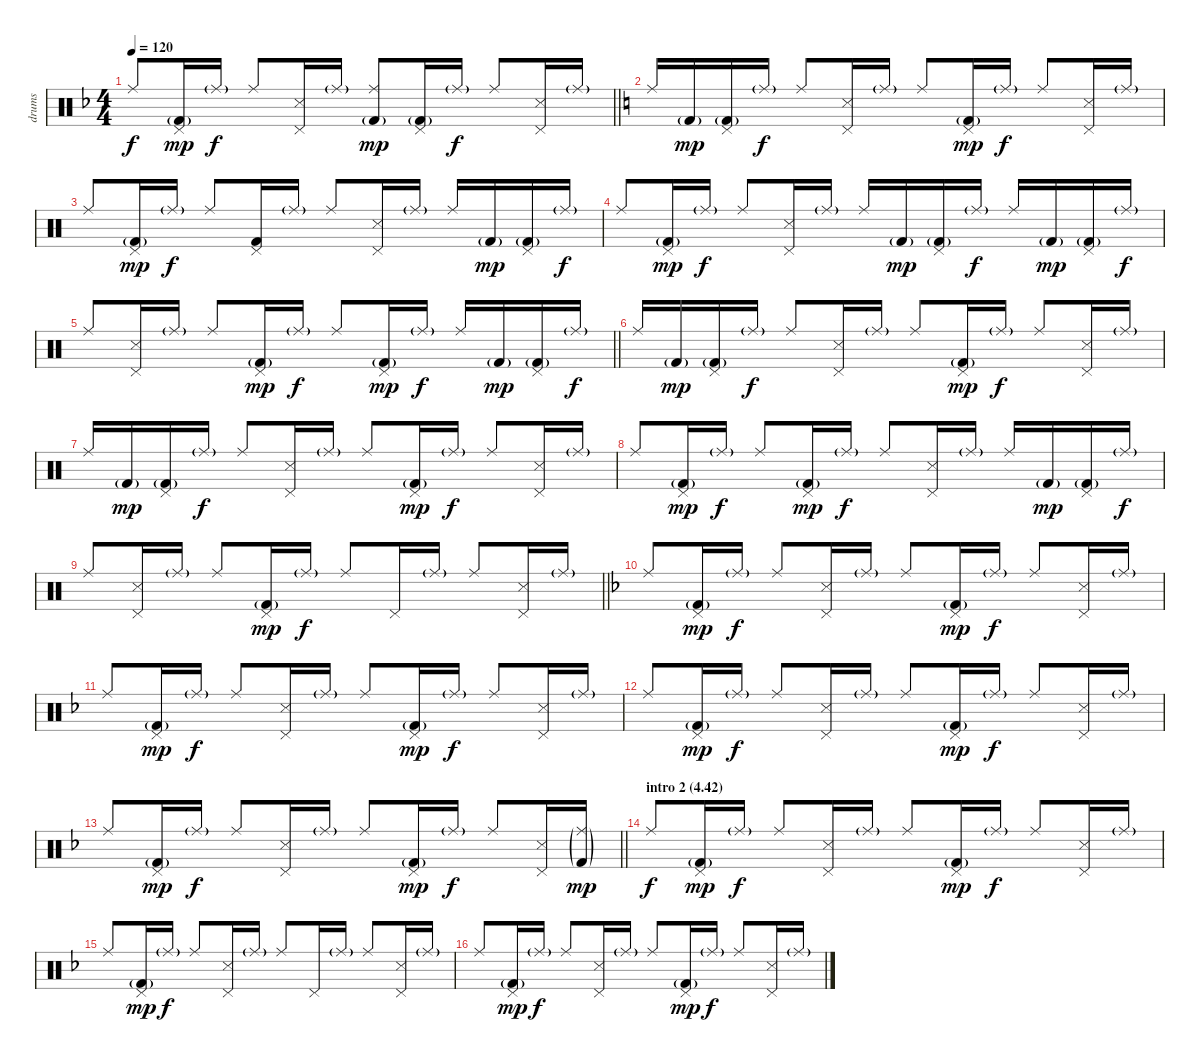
\track ("drums" "drums") {instrument percussion}
\staff {score}
\articulation defaults
\ts (4 4)
\tempo 120
\clef neutral
\barLineRight lightlight
\ks f "Ride (middle)".8{dy f}
("Pedal Hi-Hat (hit)" "Kick (hit) 2"{g}).16{dy mp} "Ride (middle)"{g}.16{dy f} "Ride (middle)".8 ("Pedal Hi-Hat (hit)" "Snare (side stick) 3").16 "Ride (middle)"{g}.16 ("Ride (middle)" "Kick (hit) 2"{g}).8{dy mp} ("Pedal Hi-Hat (hit)" "Kick (hit) 2"{g}).16 "Ride (middle)"{g}.16{dy f} "Ride (middle)".8 ("Pedal Hi-Hat (hit)" "Snare (side stick) 3").16 "Ride (middle)"{g}.16 |
\ks c "Ride (middle)".16 "Kick (hit) 2"{g}.16{dy mp}
("Pedal Hi-Hat (hit)" "Kick (hit) 2"{g}).16 "Ride (middle)"{g}.16{dy f} "Ride (middle)".8 ("Pedal Hi-Hat (hit)" "Snare (side stick) 3").16 "Ride (middle)"{g}.16 "Ride (middle)".8 ("Pedal Hi-Hat (hit)" "Kick (hit) 2"{g}).16{dy mp} "Ride (middle)"{g}.16{dy f} "Ride (middle)".8 ("Pedal Hi-Hat (hit)" "Snare (side stick) 3").16 "Ride (middle)"{g}.16 |
"Ride (middle)".8 ("Pedal Hi-Hat (hit)" "Kick (hit) 2"{g}).16{dy mp} "Ride (middle)"{g}.16{dy f} "Ride (middle)".8 ("Pedal Hi-Hat (hit)" "Kick (hit) 2").16 "Ride (middle)"{g}.16 "Ride (middle)".8 ("Pedal Hi-Hat (hit)" "Snare (side stick) 3").16 "Ride (middle)"{g}.16 "Ride (middle)".16 "Kick (hit) 2"{g}.16{dy mp} ("Pedal Hi-Hat (hit)" "Kick (hit) 2"{g}).16 "Ride (middle)"{g}.16{dy f} |
"Ride (middle)".8 ("Pedal Hi-Hat (hit)" "Kick (hit) 2"{g}).16{dy mp} "Ride (middle)"{g}.16{dy f} "Ride (middle)".8 ("Pedal Hi-Hat (hit)" "Snare (side stick) 3").16 "Ride (middle)"{g}.16 "Ride (middle)".16 "Kick (hit) 2"{g}.16{dy mp} ("Pedal Hi-Hat (hit)" "Kick (hit) 2"{g}).16 "Ride (middle)"{g}.16{dy f} "Ride (middle)".16 "Kick (hit) 2"{g}.16{dy mp} ("Pedal Hi-Hat (hit)" "Kick (hit) 2"{g}).16 "Ride (middle)"{g}.16{dy f} |
\barLineRight lightlight "Ride (middle)".8
("Pedal Hi-Hat (hit)" "Snare (side stick) 3").16 "Ride (middle)"{g}.16 "Ride (middle)".8 ("Pedal Hi-Hat (hit)" "Kick (hit) 2"{g}).16{dy mp} "Ride (middle)"{g}.16{dy f} "Ride (middle)".8 ("Pedal Hi-Hat (hit)" "Kick (hit) 2"{g}).16{dy mp} "Ride (middle)"{g}.16{dy f} "Ride (middle)".16 "Kick (hit) 2"{g}.16{dy mp} ("Pedal Hi-Hat (hit)" "Kick (hit) 2"{g}).16 "Ride (middle)"{g}.16{dy f} |
"Ride (middle)".16 "Kick (hit) 2"{g}.16{dy mp} ("Pedal Hi-Hat (hit)" "Kick (hit) 2"{g}).16 "Ride (middle)"{g}.16{dy f} "Ride (middle)".8 ("Pedal Hi-Hat (hit)" "Snare (side stick) 3").16 "Ride (middle)"{g}.16 "Ride (middle)".8 ("Pedal Hi-Hat (hit)" "Kick (hit) 2"{g}).16{dy mp} "Ride (middle)"{g}.16{dy f} "Ride (middle)".8 ("Pedal Hi-Hat (hit)" "Snare (side stick) 3").16 "Ride (middle)"{g}.16 |
"Ride (middle)".16 "Kick (hit) 2"{g}.16{dy mp} ("Pedal Hi-Hat (hit)" "Kick (hit) 2"{g}).16 "Ride (middle)"{g}.16{dy f} "Ride (middle)".8 ("Pedal Hi-Hat (hit)" "Snare (side stick) 3").16 "Ride (middle)"{g}.16 "Ride (middle)".8 ("Pedal Hi-Hat (hit)" "Kick (hit) 2"{g}).16{dy mp} "Ride (middle)"{g}.16{dy f} "Ride (middle)".8 ("Pedal Hi-Hat (hit)" "Snare (side stick) 3").16 "Ride (middle)"{g}.16 |
"Ride (middle)".8 ("Pedal Hi-Hat (hit)" "Kick (hit) 2"{g}).16{dy mp} "Ride (middle)"{g}.16{dy f} "Ride (middle)".8 ("Pedal Hi-Hat (hit)" "Kick (hit) 2"{g}).16{dy mp} "Ride (middle)"{g}.16{dy f} "Ride (middle)".8 ("Pedal Hi-Hat (hit)" "Snare (side stick) 3").16 "Ride (middle)"{g}.16 "Ride (middle)".16 "Kick (hit) 2"{g}.16{dy mp} ("Pedal Hi-Hat (hit)" "Kick (hit) 2"{g}).16 "Ride (middle)"{g}.16{dy f} |
\barLineRight lightlight "Ride (middle)".8
("Pedal Hi-Hat (hit)" "Snare (side stick) 3").16 "Ride (middle)"{g}.16 "Ride (middle)".8 ("Pedal Hi-Hat (hit)" "Kick (hit) 2"{g}).16{dy mp} "Ride (middle)"{g}.16{dy f} "Ride (middle)".8 "Pedal Hi-Hat (hit)".16 "Ride (middle)"{g}.16 "Ride (middle)".8 ("Pedal Hi-Hat (hit)" "Snare (side stick) 3").16 "Ride (middle)"{g}.16 |
\ks f "Ride (middle)".8
("Pedal Hi-Hat (hit)" "Kick (hit) 2"{g}).16{dy mp} "Ride (middle)"{g}.16{dy f} "Ride (middle)".8 ("Pedal Hi-Hat (hit)" "Snare (side stick) 3").16 "Ride (middle)"{g}.16 "Ride (middle)".8 ("Pedal Hi-Hat (hit)" "Kick (hit) 2"{g}).16{dy mp} "Ride (middle)"{g}.16{dy f} "Ride (middle)".8 ("Pedal Hi-Hat (hit)" "Snare (side stick) 3").16 "Ride (middle)"{g}.16 |
"Ride (middle)".8 ("Pedal Hi-Hat (hit)" "Kick (hit) 2"{g}).16{dy mp} "Ride (middle)"{g}.16{dy f} "Ride (middle)".8 ("Pedal Hi-Hat (hit)" "Snare (side stick) 3").16 "Ride (middle)"{g}.16 "Ride (middle)".8 ("Pedal Hi-Hat (hit)" "Kick (hit) 2"{g}).16{dy mp} "Ride (middle)"{g}.16{dy f} "Ride (middle)".8 ("Pedal Hi-Hat (hit)" "Snare (side stick) 3").16 "Ride (middle)"{g}.16 |
"Ride (middle)".8 ("Pedal Hi-Hat (hit)" "Kick (hit) 2"{g}).16{dy mp} "Ride (middle)"{g}.16{dy f} "Ride (middle)".8 ("Pedal Hi-Hat (hit)" "Snare (side stick) 3").16 "Ride (middle)"{g}.16 "Ride (middle)".8 ("Pedal Hi-Hat (hit)" "Kick (hit) 2"{g}).16{dy mp} "Ride (middle)"{g}.16{dy f} "Ride (middle)".8 ("Pedal Hi-Hat (hit)" "Snare (side stick) 3").16 "Ride (middle)"{g}.16 |
\barLineRight lightlight "Ride (middle)".8
("Pedal Hi-Hat (hit)" "Kick (hit) 2"{g}).16{dy mp} "Ride (middle)"{g}.16{dy f} "Ride (middle)".8 ("Pedal Hi-Hat (hit)" "Snare (side stick) 3").16 "Ride (middle)"{g}.16 "Ride (middle)".8 ("Pedal Hi-Hat (hit)" "Kick (hit) 2"{g}).16{dy mp} "Ride (middle)"{g}.16{dy f} "Ride (middle)".8 ("Pedal Hi-Hat (hit)" "Snare (side stick) 3").16 ("Ride (middle)"{g} "Kick (hit) 2"{g}).16{dy mp} |
\section ("" "intro 2 (4.42)")
"Ride (middle)".8{dy f} ("Pedal Hi-Hat (hit)" "Kick (hit) 2"{g}).16{dy mp} "Ride (middle)"{g}.16{dy f} "Ride (middle)".8 ("Pedal Hi-Hat (hit)" "Snare (side stick) 3").16 "Ride (middle)"{g}.16 "Ride (middle)".8 ("Pedal Hi-Hat (hit)" "Kick (hit) 2"{g}).16{dy mp} "Ride (middle)"{g}.16{dy f} "Ride (middle)".8 ("Pedal Hi-Hat (hit)" "Snare (side stick) 3").16 "Ride (middle)"{g}.16 |
"Ride (middle)".8 ("Pedal Hi-Hat (hit)" "Kick (hit) 2"{g}).16{dy mp} "Ride (middle)"{g}.16{dy f} "Ride (middle)".8 ("Pedal Hi-Hat (hit)" "Snare (side stick) 3").16 "Ride (middle)"{g}.16 "Ride (middle)".8 "Pedal Hi-Hat (hit)".16 "Ride (middle)"{g}.16 "Ride (middle)".8 ("Pedal Hi-Hat (hit)" "Snare (side stick) 3").16 "Ride (middle)"{g}.16 |
"Ride (middle)".8 ("Pedal Hi-Hat (hit)" "Kick (hit) 2"{g}).16{dy mp} "Ride (middle)"{g}.16{dy f} "Ride (middle)".8 ("Pedal Hi-Hat (hit)" "Snare (side stick) 3").16 "Ride (middle)"{g}.16 "Ride (middle)".8 ("Pedal Hi-Hat (hit)" "Kick (hit) 2"{g}).16{dy mp} "Ride (middle)"{g}.16{dy f} "Ride (middle)".8 ("Pedal Hi-Hat (hit)" "Snare (side stick) 3").16 "Ride (middle)"{g}.16
